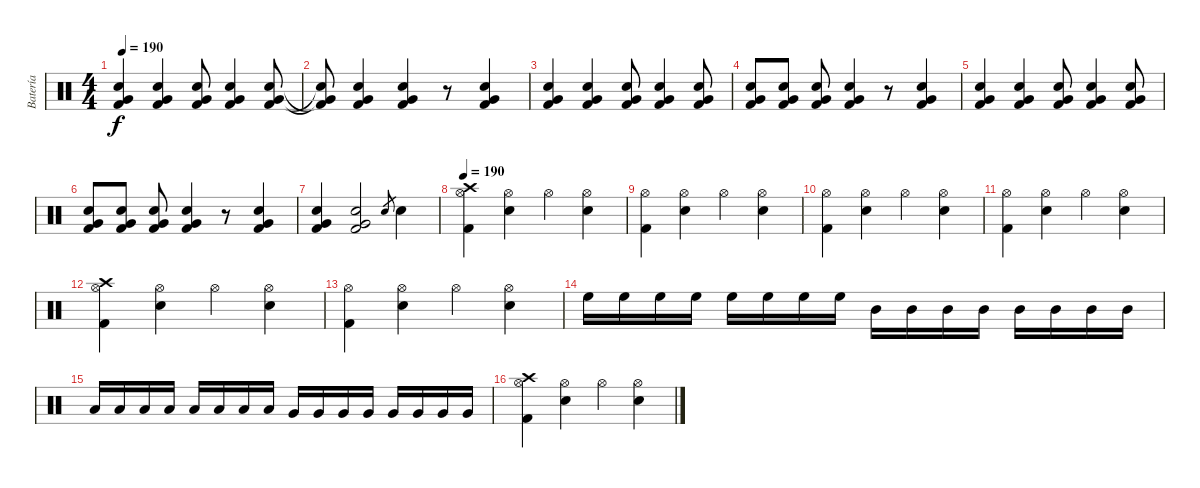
\track ("Batería" "Batería") {instrument percussion}
\staff {score}
\articulation defaults
\ts (4 4)
\tempo 190
\clef neutral
\ks c
("Electric Snare (hit)" "Very Low Tom (hit)" "Kick (hit) 2").4{dy f} ("Electric Snare (hit)" "Very Low Tom (hit)" "Kick (hit) 2").4 ("Electric Snare (hit)" "Very Low Tom (hit)" "Kick (hit) 2").8 ("Electric Snare (hit)" "Very Low Tom (hit)" "Kick (hit) 2").4 ("Electric Snare (hit)" "Very Low Tom (hit)" "Kick (hit) 2").8 |
("Kick (hit) 2"{t} "Very Low Tom (hit)"{t} "Snare (hit)"{t}).8 ("Electric Snare (hit)" "Very Low Tom (hit)" "Kick (hit) 2").4 ("Electric Snare (hit)" "Very Low Tom (hit)" "Kick (hit) 2").4 r.8 ("Electric Snare (hit)" "Very Low Tom (hit)" "Kick (hit) 2").4 |
("Electric Snare (hit)" "Very Low Tom (hit)" "Kick (hit) 2").4 ("Electric Snare (hit)" "Very Low Tom (hit)" "Kick (hit) 2").4 ("Electric Snare (hit)" "Very Low Tom (hit)" "Kick (hit) 2").8 ("Electric Snare (hit)" "Very Low Tom (hit)" "Kick (hit) 2").4 ("Electric Snare (hit)" "Very Low Tom (hit)" "Kick (hit) 2").8 |
("Electric Snare (hit)" "Very Low Tom (hit)" "Kick (hit) 2").8 ("Electric Snare (hit)" "Very Low Tom (hit)" "Kick (hit) 2").8 ("Electric Snare (hit)" "Very Low Tom (hit)" "Kick (hit) 2").8 ("Electric Snare (hit)" "Very Low Tom (hit)" "Kick (hit) 2").4 r.8 ("Electric Snare (hit)" "Very Low Tom (hit)" "Kick (hit) 2").4 |
("Electric Snare (hit)" "Very Low Tom (hit)" "Kick (hit) 2").4 ("Electric Snare (hit)" "Very Low Tom (hit)" "Kick (hit) 2").4 ("Electric Snare (hit)" "Very Low Tom (hit)" "Kick (hit) 2").8 ("Electric Snare (hit)" "Very Low Tom (hit)" "Kick (hit) 2").4 ("Electric Snare (hit)" "Very Low Tom (hit)" "Kick (hit) 2").8 |
("Electric Snare (hit)" "Very Low Tom (hit)" "Kick (hit) 2").8 ("Electric Snare (hit)" "Very Low Tom (hit)" "Kick (hit) 2").8 ("Electric Snare (hit)" "Very Low Tom (hit)" "Kick (hit) 2").8 ("Electric Snare (hit)" "Very Low Tom (hit)" "Kick (hit) 2").4 r.8 ("Electric Snare (hit)" "Very Low Tom (hit)" "Kick (hit) 2").4 |
("Electric Snare (hit)" "Very Low Tom (hit)" "Kick (hit) 2").4 ("Electric Snare (hit)" "Very Low Tom (hit)" "Kick (hit) 2").2 "Electric Snare (hit)".8{gr} "Electric Snare (hit)".4 |
\tempo 190
("Hi-Hat (open)" "Kick (hit) 2" "Crash high (hit)").4 ("Hi-Hat (open)" "Electric Snare (hit)").4 "Hi-Hat (open)".4 ("Hi-Hat (open)" "Electric Snare (hit)").4 |
("Hi-Hat (open)" "Kick (hit) 2").4 ("Hi-Hat (open)" "Electric Snare (hit)").4 "Hi-Hat (open)".4 ("Hi-Hat (open)" "Electric Snare (hit)").4 |
("Hi-Hat (open)" "Kick (hit) 2").4 ("Hi-Hat (open)" "Electric Snare (hit)").4 "Hi-Hat (open)".4 ("Hi-Hat (open)" "Electric Snare (hit)").4 |
("Hi-Hat (open)" "Kick (hit) 2").4 ("Hi-Hat (open)" "Electric Snare (hit)").4 "Hi-Hat (open)".4 ("Hi-Hat (open)" "Electric Snare (hit)").4 |
("Hi-Hat (open)" "Kick (hit) 2" "Crash high (hit)").4 ("Hi-Hat (open)" "Electric Snare (hit)").4 "Hi-Hat (open)".4 ("Hi-Hat (open)" "Electric Snare (hit)").4 |
("Hi-Hat (open)" "Kick (hit) 2").4 ("Hi-Hat (open)" "Electric Snare (hit)").4 "Hi-Hat (open)".4 ("Hi-Hat (open)" "Electric Snare (hit)").4 |
"High Floor Tom (hit)".16 "High Floor Tom (hit)".16 "High Floor Tom (hit)".16 "High Floor Tom (hit)".16 "High Floor Tom (hit)".16 "High Floor Tom (hit)".16 "High Floor Tom (hit)".16 "High Floor Tom (hit)".16 "Mid Tom (hit)".16 "Mid Tom (hit)".16 "Mid Tom (hit)".16 "Mid Tom (hit)".16 "Mid Tom (hit)".16 "Mid Tom (hit)".16 "Mid Tom (hit)".16 "Mid Tom (hit)".16 |
"Low Tom (hit)".16 "Low Tom (hit)".16 "Low Tom (hit)".16 "Low Tom (hit)".16 "Low Tom (hit)".16 "Low Tom (hit)".16 "Low Tom (hit)".16 "Low Tom (hit)".16 "Very Low Tom (hit)".16 "Very Low Tom (hit)".16 "Very Low Tom (hit)".16 "Very Low Tom (hit)".16 "Very Low Tom (hit)".16 "Very Low Tom (hit)".16 "Very Low Tom (hit)".16 "Very Low Tom (hit)".16 |
("Hi-Hat (open)" "Kick (hit) 2" "Crash high (hit)").4 ("Hi-Hat (open)" "Electric Snare (hit)").4 "Hi-Hat (open)".4 ("Hi-Hat (open)" "Electric Snare (hit)").4
